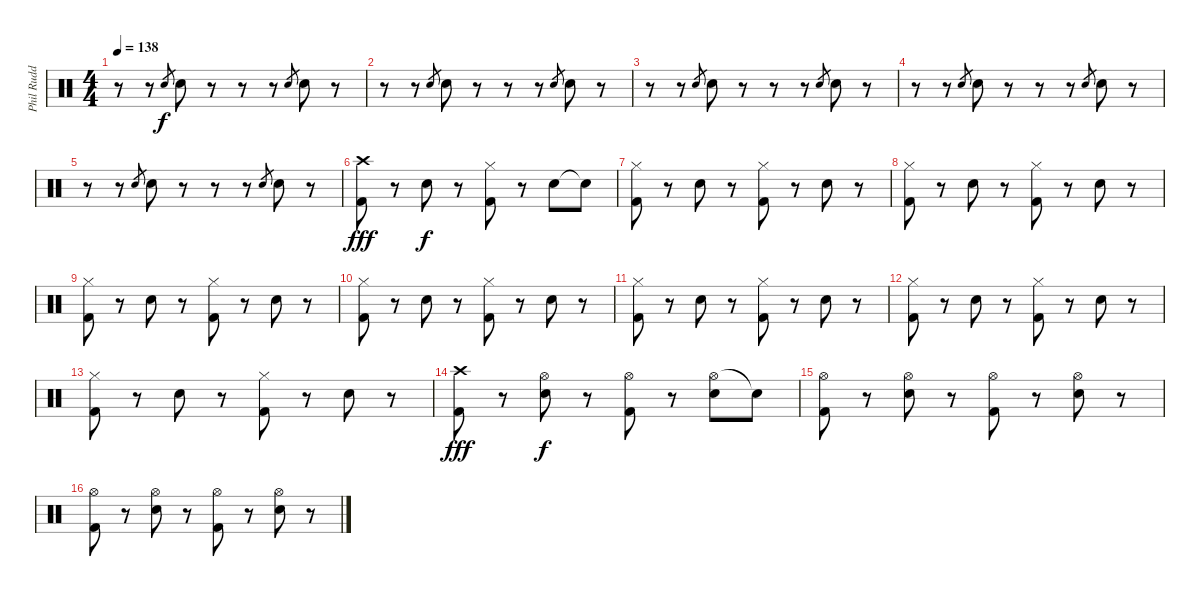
\track ("Phil Rudd" "Phil Rudd") {instrument percussion}
\staff {score}
\articulation defaults
\ts (4 4)
\tempo 138
\clef neutral
\ks c
r.8{dy f} r.8 "Snare (hit) 2".8{gr} "Snare (hit) 2".8 r.8 r.8 r.8 "Snare (hit) 2".8{gr} "Snare (hit) 2".8 r.8 |
r.8 r.8 "Snare (hit) 2".8{gr} "Snare (hit) 2".8 r.8 r.8 r.8 "Snare (hit) 2".8{gr} "Snare (hit) 2".8 r.8 |
r.8 r.8 "Snare (hit) 2".8{gr} "Snare (hit) 2".8 r.8 r.8 r.8 "Snare (hit) 2".8{gr} "Snare (hit) 2".8 r.8 |
r.8 r.8 "Snare (hit) 2".8{gr} "Snare (hit) 2".8 r.8 r.8 r.8 "Snare (hit) 2".8{gr} "Snare (hit) 2".8 r.8 |
r.8 r.8 "Snare (hit) 2".8{gr} "Snare (hit) 2".8 r.8 r.8 r.8 "Snare (hit) 2".8{gr} "Snare (hit) 2".8 r.8 |
("Crash high (hit)" "Kick (hit) 2").8{dy fff} r.8 "Snare (hit) 2".8{dy f} r.8 ("Hi-Hat (closed)" "Kick (hit) 2").8 r.8 "Snare (hit) 2".8 "Snare (hit)"{t}.8 |
("Hi-Hat (closed)" "Kick (hit) 2").8 r.8 "Snare (hit) 2".8 r.8 ("Hi-Hat (closed)" "Kick (hit) 2").8 r.8 "Snare (hit) 2".8 r.8 |
("Hi-Hat (closed)" "Kick (hit) 2").8 r.8 "Snare (hit) 2".8 r.8 ("Hi-Hat (closed)" "Kick (hit) 2").8 r.8 "Snare (hit) 2".8 r.8 |
("Hi-Hat (closed)" "Kick (hit) 2").8 r.8 "Snare (hit) 2".8 r.8 ("Hi-Hat (closed)" "Kick (hit) 2").8 r.8 "Snare (hit) 2".8 r.8 |
("Hi-Hat (closed)" "Kick (hit) 2").8 r.8 "Snare (hit) 2".8 r.8 ("Hi-Hat (closed)" "Kick (hit) 2").8 r.8 "Snare (hit) 2".8 r.8 |
("Hi-Hat (closed)" "Kick (hit) 2").8 r.8 "Snare (hit) 2".8 r.8 ("Hi-Hat (closed)" "Kick (hit) 2").8 r.8 "Snare (hit) 2".8 r.8 |
("Hi-Hat (closed)" "Kick (hit) 2").8 r.8 "Snare (hit) 2".8 r.8 ("Hi-Hat (closed)" "Kick (hit) 2").8 r.8 "Snare (hit) 2".8 r.8 |
("Hi-Hat (closed)" "Kick (hit) 2").8 r.8 "Snare (hit) 2".8 r.8 ("Hi-Hat (closed)" "Kick (hit) 2").8 r.8 "Snare (hit) 2".8 r.8 |
("Crash high (hit)" "Kick (hit) 2").8{dy fff} r.8 ("Hi-Hat (open)" "Snare (hit) 2").8{dy f} r.8 ("Hi-Hat (open)" "Kick (hit) 2").8 r.8 ("Hi-Hat (open)" "Snare (hit) 2").8 "Snare (hit)"{t}.8 |
("Hi-Hat (open)" "Kick (hit) 2").8 r.8 ("Hi-Hat (open)" "Snare (hit) 2").8 r.8 ("Hi-Hat (open)" "Kick (hit) 2").8 r.8 ("Hi-Hat (open)" "Snare (hit) 2").8 r.8 |
("Hi-Hat (open)" "Kick (hit) 2").8 r.8 ("Hi-Hat (open)" "Snare (hit) 2").8 r.8 ("Hi-Hat (open)" "Kick (hit) 2").8 r.8 ("Hi-Hat (open)" "Snare (hit) 2").8 r.8
